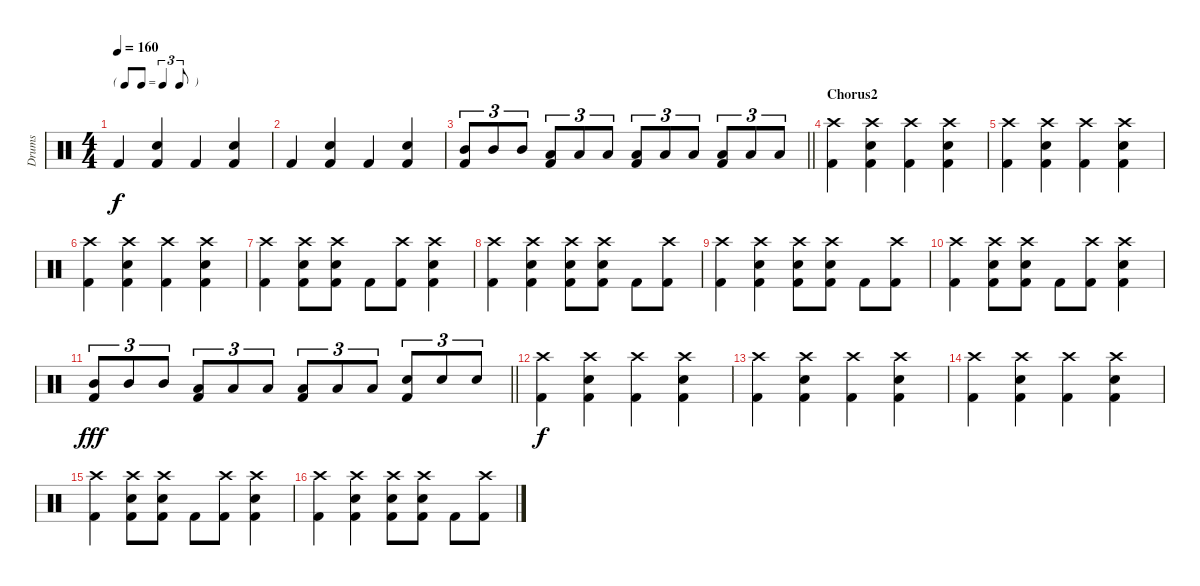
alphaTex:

\track ("Drums" "Drums") {instrument percussion}
\staff {score}
\articulation defaults
\ts (4 4)
\tf triplet8th
\tempo 160
\clef neutral
\ks c "Kick (hit) 2".4{dy f}
("Snare (hit) 2" "Kick (hit) 2").4 "Kick (hit) 2".4 ("Snare (hit) 2" "Kick (hit) 2").4 |
"Kick (hit) 2".4 ("Snare (hit) 2" "Kick (hit) 2").4 "Kick (hit) 2".4 ("Snare (hit) 2" "Kick (hit) 2").4 |
\barLineRight lightlight
("Mid Tom (hit)" "Kick (hit) 2").8{tu (3 2)} "Mid Tom (hit)".8{tu (3 2)} "Mid Tom (hit)".8{tu (3 2)} ("Low Tom (hit)" "Kick (hit) 2").8{tu (3 2)} "Low Tom (hit)".8{tu (3 2)} "Low Tom (hit)".8{tu (3 2)} ("Low Floor Tom (hit)" "Kick (hit) 2").8{tu (3 2)} "Low Floor Tom (hit)".8{tu (3 2)} "Low Floor Tom (hit)".8{tu (3 2)} ("Low Tom (hit)" "Kick (hit) 2").8{tu (3 2)} "Low Tom (hit)".8{tu (3 2)} "Low Tom (hit)".8{tu (3 2)} |
\section ("" "Chorus2")
("Crash high (hit)" "Kick (hit) 2").4 ("Crash high (hit)" "Snare (hit) 2" "Kick (hit) 2").4 ("Crash high (hit)" "Kick (hit) 2").4 ("Crash high (hit)" "Snare (hit) 2" "Kick (hit) 2").4 |
("Crash high (hit)" "Kick (hit) 2").4 ("Crash high (hit)" "Snare (hit) 2" "Kick (hit) 2").4 ("Crash high (hit)" "Kick (hit) 2").4 ("Crash high (hit)" "Snare (hit) 2" "Kick (hit) 2").4 |
("Crash high (hit)" "Kick (hit) 2").4 ("Crash high (hit)" "Snare (hit) 2" "Kick (hit) 2").4 ("Crash high (hit)" "Kick (hit) 2").4 ("Crash high (hit)" "Snare (hit) 2" "Kick (hit) 2").4 |
("Crash high (hit)" "Kick (hit) 2").4 ("Crash high (hit)" "Snare (hit) 2" "Kick (hit) 2").8 ("Crash high (hit)" "Snare (hit) 2" "Kick (hit) 2").8 "Kick (hit) 2".8 ("Crash high (hit)" "Kick (hit) 2").8 ("Crash high (hit)" "Snare (hit) 2" "Kick (hit) 2").4 |
("Crash high (hit)" "Kick (hit) 2").4 ("Crash high (hit)" "Snare (hit) 2" "Kick (hit) 2").4 ("Crash high (hit)" "Snare (hit) 2" "Kick (hit) 2").8 ("Crash high (hit)" "Snare (hit) 2" "Kick (hit) 2").8 "Kick (hit) 2".8 ("Crash high (hit)" "Kick (hit) 2").8 |
("Crash high (hit)" "Kick (hit) 2").4 ("Crash high (hit)" "Snare (hit) 2" "Kick (hit) 2").4 ("Crash high (hit)" "Snare (hit) 2" "Kick (hit) 2").8 ("Crash high (hit)" "Snare (hit) 2" "Kick (hit) 2").8 "Kick (hit) 2".8 ("Crash high (hit)" "Kick (hit) 2").8 |
("Crash high (hit)" "Kick (hit) 2").4 ("Crash high (hit)" "Snare (hit) 2" "Kick (hit) 2").8 ("Crash high (hit)" "Snare (hit) 2" "Kick (hit) 2").8 "Kick (hit) 2".8 ("Crash high (hit)" "Kick (hit) 2").8 ("Crash high (hit)" "Snare (hit) 2" "Kick (hit) 2").4 |
\barLineRight lightlight
("Mid Tom (hit)" "Kick (hit) 2").8{tu (3 2) dy fff} "Mid Tom (hit)".8{tu (3 2)} "Mid Tom (hit)".8{tu (3 2)} ("Low Tom (hit)" "Kick (hit) 2").8{tu (3 2)} "Low Tom (hit)".8{tu (3 2)} "Low Tom (hit)".8{tu (3 2)} ("Low Floor Tom (hit)" "Kick (hit) 2").8{tu (3 2)} "Low Floor Tom (hit)".8{tu (3 2)} "Low Floor Tom (hit)".8{tu (3 2)} ("Snare (hit) 2" "Kick (hit) 2").8{tu (3 2)} "Snare (hit) 2".8{tu (3 2)} "Snare (hit) 2".8{tu (3 2)} |
("Crash high (hit)" "Kick (hit) 2").4{dy f} ("Crash high (hit)" "Snare (hit) 2" "Kick (hit) 2").4 ("Crash high (hit)" "Kick (hit) 2").4 ("Crash high (hit)" "Snare (hit) 2" "Kick (hit) 2").4 |
("Crash high (hit)" "Kick (hit) 2").4 ("Crash high (hit)" "Snare (hit) 2" "Kick (hit) 2").4 ("Crash high (hit)" "Kick (hit) 2").4 ("Crash high (hit)" "Snare (hit) 2" "Kick (hit) 2").4 |
("Crash high (hit)" "Kick (hit) 2").4 ("Crash high (hit)" "Snare (hit) 2" "Kick (hit) 2").4 ("Crash high (hit)" "Kick (hit) 2").4 ("Crash high (hit)" "Snare (hit) 2" "Kick (hit) 2").4 |
("Crash high (hit)" "Kick (hit) 2").4 ("Crash high (hit)" "Snare (hit) 2" "Kick (hit) 2").8 ("Crash high (hit)" "Snare (hit) 2" "Kick (hit) 2").8 "Kick (hit) 2".8 ("Crash high (hit)" "Kick (hit) 2").8 ("Crash high (hit)" "Snare (hit) 2" "Kick (hit) 2").4 |
("Crash high (hit)" "Kick (hit) 2").4 ("Crash high (hit)" "Snare (hit) 2" "Kick (hit) 2").4 ("Crash high (hit)" "Snare (hit) 2" "Kick (hit) 2").8 ("Crash high (hit)" "Snare (hit) 2" "Kick (hit) 2").8 "Kick (hit) 2".8 ("Crash high (hit)" "Kick (hit) 2").8
